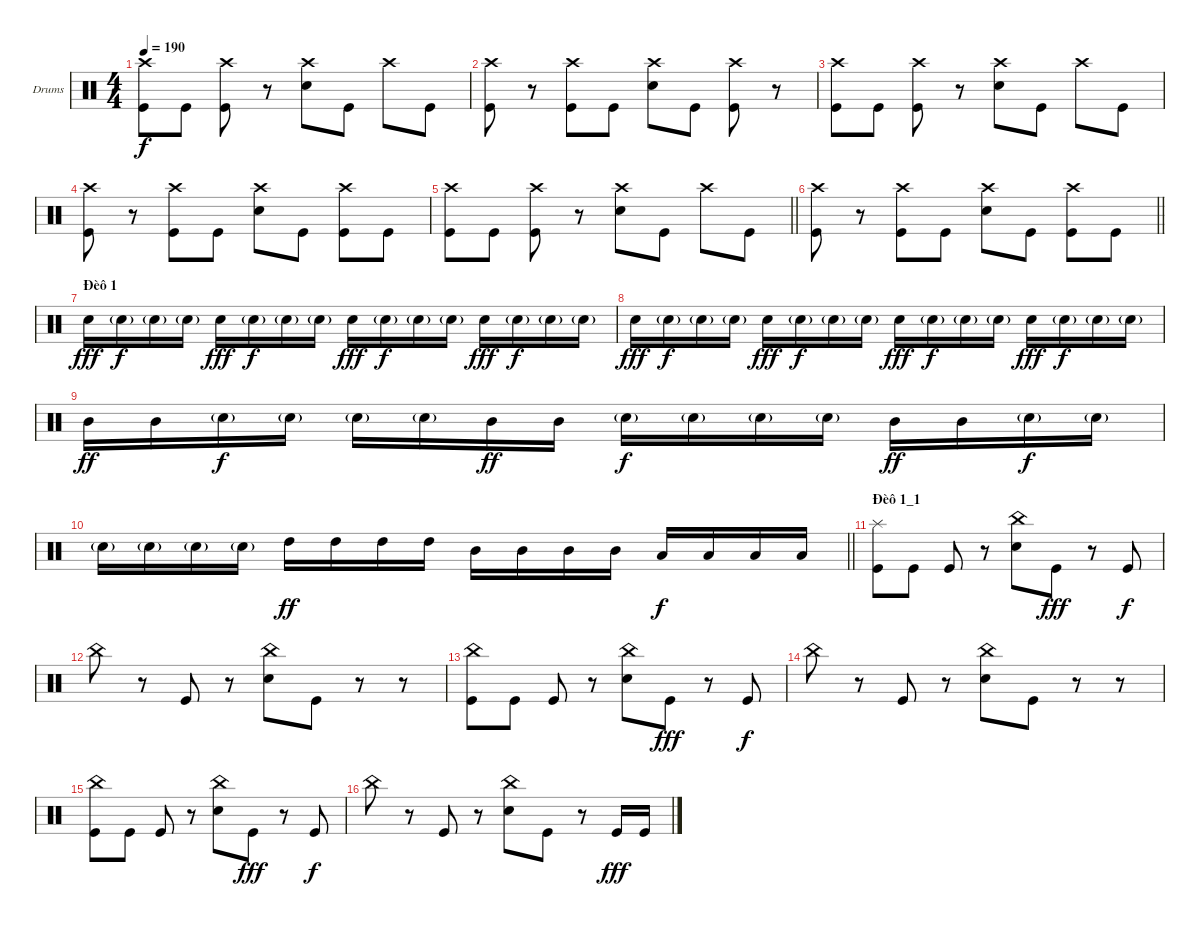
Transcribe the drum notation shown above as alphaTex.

\bracketExtendMode groupsimilarinstruments
\firstSystemTrackNameOrientation horizontal
\otherSystemsTrackNameOrientation horizontal
\track ("Drumkit" "Drums") {instrument percussion}
\staff {score}
\articulation defaults
\ts (4 4)
\tempo 190
\clef neutral
\ks c
("Crash high (hit)" "Kick (hit)").8{dy f} "Kick (hit)".8 ("Crash high (hit)" "Kick (hit)").8 r.8 ("Crash high (hit)" "Snare (hit) 2").8 "Kick (hit)".8 "Crash high (hit)".8 "Kick (hit)".8 |
("Crash high (hit)" "Kick (hit)").8 r.8 ("Crash high (hit)" "Kick (hit)").8 "Kick (hit)".8 ("Crash high (hit)" "Snare (hit) 2").8 "Kick (hit)".8 ("Crash high (hit)" "Kick (hit)").8 r.8 |
("Crash high (hit)" "Kick (hit)").8 "Kick (hit)".8 ("Crash high (hit)" "Kick (hit)").8 r.8 ("Crash high (hit)" "Snare (hit) 2").8 "Kick (hit)".8 "Crash high (hit)".8 "Kick (hit)".8 |
("Crash high (hit)" "Kick (hit)").8 r.8 ("Crash high (hit)" "Kick (hit)").8 "Kick (hit)".8 ("Crash high (hit)" "Snare (hit) 2").8 "Kick (hit)".8 ("Crash high (hit)" "Kick (hit)").8 "Kick (hit)".8 |
\barLineRight lightlight
("Crash high (hit)" "Kick (hit)").8 "Kick (hit)".8 ("Crash high (hit)" "Kick (hit)").8 r.8 ("Crash high (hit)" "Snare (hit) 2").8 "Kick (hit)".8 "Crash high (hit)".8 "Kick (hit)".8 |
\section ("" "")
\barLineRight lightlight
("Crash high (hit)" "Kick (hit)").8 r.8 ("Crash high (hit)" "Kick (hit)").8 "Kick (hit)".8 ("Crash high (hit)" "Snare (hit) 2").8 "Kick (hit)".8 ("Crash high (hit)" "Kick (hit)").8 "Kick (hit)".8 |
\section ("" "Ðèô 1")
"Snare (hit) 2".16{dy fff} "Snare (hit) 2"{g}.16{dy f} "Snare (hit) 2"{g}.16 "Snare (hit) 2"{g}.16 "Snare (hit) 2".16{dy fff} "Snare (hit) 2"{g}.16{dy f} "Snare (hit) 2"{g}.16 "Snare (hit) 2"{g}.16 "Snare (hit) 2".16{dy fff} "Snare (hit) 2"{g}.16{dy f} "Snare (hit) 2"{g}.16 "Snare (hit) 2"{g}.16 "Snare (hit) 2".16{dy fff} "Snare (hit) 2"{g}.16{dy f} "Snare (hit) 2"{g}.16 "Snare (hit) 2"{g}.16 |
"Snare (hit) 2".16{dy fff} "Snare (hit) 2"{g}.16{dy f} "Snare (hit) 2"{g}.16 "Snare (hit) 2"{g}.16 "Snare (hit) 2".16{dy fff} "Snare (hit) 2"{g}.16{dy f} "Snare (hit) 2"{g}.16 "Snare (hit) 2"{g}.16 "Snare (hit) 2".16{dy fff} "Snare (hit) 2"{g}.16{dy f} "Snare (hit) 2"{g}.16 "Snare (hit) 2"{g}.16 "Snare (hit) 2".16{dy fff} "Snare (hit) 2"{g}.16{dy f} "Snare (hit) 2"{g}.16 "Snare (hit) 2"{g}.16 |
"Mid Tom (hit)".16{dy ff} "Mid Tom (hit)".16 "Snare (hit) 2"{g}.16{dy f} "Snare (hit) 2"{g}.16 "Snare (hit) 2"{g}.16 "Snare (hit) 2"{g}.16 "Mid Tom (hit)".16{dy ff} "Mid Tom (hit)".16 "Snare (hit) 2"{g}.16{dy f} "Snare (hit) 2"{g}.16 "Snare (hit) 2"{g}.16 "Snare (hit) 2"{g}.16 "Mid Tom (hit)".16{dy ff} "Mid Tom (hit)".16 "Snare (hit) 2"{g}.16{dy f} "Snare (hit) 2"{g}.16 |
\barLineRight lightlight "Snare (hit) 2"{g}.16 "Snare (hit) 2"{g}.16 "Snare (hit) 2"{g}.16 "Snare (hit) 2"{g}.16 "High Tom (hit)".16{dy ff} "High Tom (hit)".16 "High Tom (hit)".16 "High Tom (hit)".16 "Mid Tom (hit)".16 "Mid Tom (hit)".16 "Mid Tom (hit)".16 "Mid Tom (hit)".16 "Low Tom (hit)".16{dy f} "Low Tom (hit)".16 "Low Tom (hit)".16 "Low Tom (hit)".16
|
\section ("" "Ðèô 1_1")
("Splash (hit)" "Kick (hit)").8 "Kick (hit)".8 "Kick (hit)".8 r.8 ("China (hit)" "Snare (hit) 2").8 "Kick (hit)".8{dy fff} r.8 "Kick (hit)".8{dy f} |
"China (hit)".8 r.8 "Kick (hit)".8 r.8 ("China (hit)" "Snare (hit) 2").8 "Kick (hit)".8 r.8 r.8 |
("China (hit)" "Kick (hit)").8 "Kick (hit)".8 "Kick (hit)".8 r.8 ("China (hit)" "Snare (hit) 2").8 "Kick (hit)".8{dy fff} r.8 "Kick (hit)".8{dy f} |
"China (hit)".8 r.8 "Kick (hit)".8 r.8 ("China (hit)" "Snare (hit) 2").8 "Kick (hit)".8 r.8 r.8 |
("China (hit)" "Kick (hit)").8 "Kick (hit)".8 "Kick (hit)".8 r.8 ("China (hit)" "Snare (hit) 2").8 "Kick (hit)".8{dy fff} r.8 "Kick (hit)".8{dy f} |
"China (hit)".8 r.8 "Kick (hit)".8 r.8 ("China (hit)" "Snare (hit) 2").8 "Kick (hit)".8 r.8 "Kick (hit)".16{dy fff} "Kick (hit)".16
